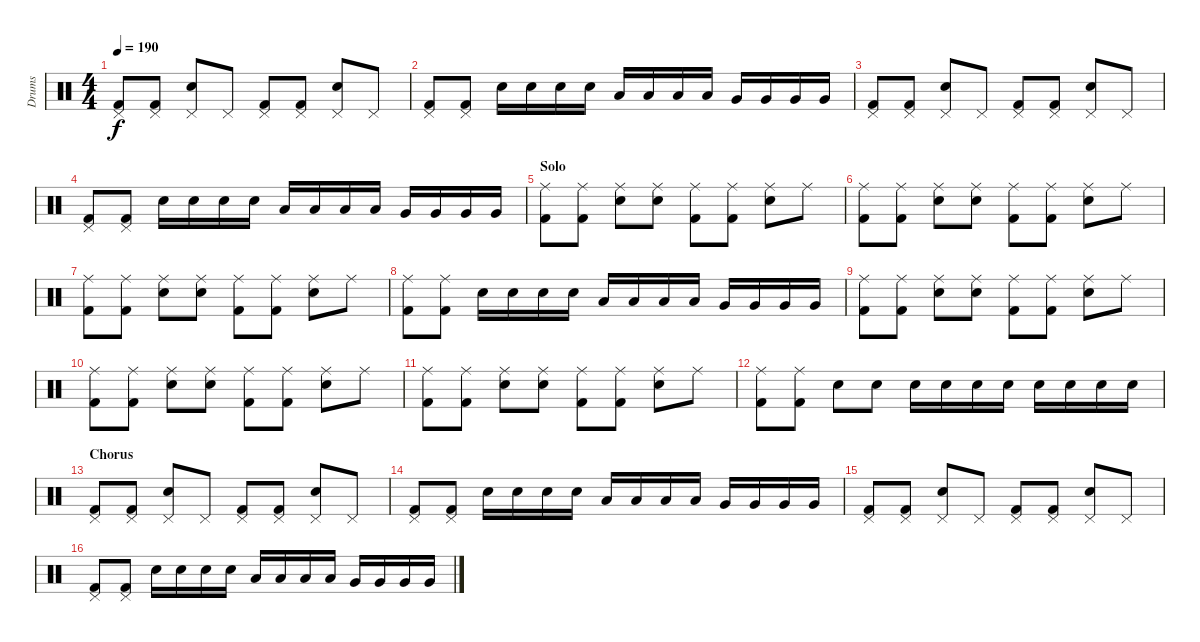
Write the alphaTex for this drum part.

\track ("Drums" "Drums") {instrument percussion}
\staff {score}
\articulation defaults
\ts (4 4)
\tempo 190
\clef neutral
\ks c
("Kick (hit) 2" "Pedal Hi-Hat (hit)").8{dy f} ("Kick (hit) 2" "Pedal Hi-Hat (hit)").8 ("Electric Snare (hit)" "Pedal Hi-Hat (hit)").8 "Pedal Hi-Hat (hit)".8 ("Kick (hit) 2" "Pedal Hi-Hat (hit)").8 ("Kick (hit) 2" "Pedal Hi-Hat (hit)").8 ("Electric Snare (hit)" "Pedal Hi-Hat (hit)").8 "Pedal Hi-Hat (hit)".8 |
("Kick (hit) 2" "Pedal Hi-Hat (hit)").8 ("Kick (hit) 2" "Pedal Hi-Hat (hit)").8 "Electric Snare (hit)".16 "Electric Snare (hit)".16 "Electric Snare (hit)".16 "Electric Snare (hit)".16 "Low Floor Tom (hit)".16 "Low Floor Tom (hit)".16 "Low Floor Tom (hit)".16 "Low Floor Tom (hit)".16 "Very Low Tom (hit)".16 "Very Low Tom (hit)".16 "Very Low Tom (hit)".16 "Very Low Tom (hit)".16 |
("Kick (hit) 2" "Pedal Hi-Hat (hit)").8 ("Kick (hit) 2" "Pedal Hi-Hat (hit)").8 ("Electric Snare (hit)" "Pedal Hi-Hat (hit)").8 "Pedal Hi-Hat (hit)".8 ("Kick (hit) 2" "Pedal Hi-Hat (hit)").8 ("Kick (hit) 2" "Pedal Hi-Hat (hit)").8 ("Electric Snare (hit)" "Pedal Hi-Hat (hit)").8 "Pedal Hi-Hat (hit)".8 |
("Kick (hit) 2" "Pedal Hi-Hat (hit)").8 ("Kick (hit) 2" "Pedal Hi-Hat (hit)").8 "Electric Snare (hit)".16 "Electric Snare (hit)".16 "Electric Snare (hit)".16 "Electric Snare (hit)".16 "Low Floor Tom (hit)".16 "Low Floor Tom (hit)".16 "Low Floor Tom (hit)".16 "Low Floor Tom (hit)".16 "Very Low Tom (hit)".16 "Very Low Tom (hit)".16 "Very Low Tom (hit)".16 "Very Low Tom (hit)".16 |
\section ("" "Solo")
("Kick (hit) 2" "Ride (middle)").8 ("Kick (hit) 2" "Ride (middle)").8 ("Electric Snare (hit)" "Ride (middle)").8 ("Electric Snare (hit)" "Ride (middle)").8 ("Kick (hit) 2" "Ride (middle)").8 ("Kick (hit) 2" "Ride (middle)").8 ("Electric Snare (hit)" "Ride (middle)").8 "Ride (middle)".8 |
("Kick (hit) 2" "Ride (middle)").8 ("Kick (hit) 2" "Ride (middle)").8 ("Electric Snare (hit)" "Ride (middle)").8 ("Electric Snare (hit)" "Ride (middle)").8 ("Kick (hit) 2" "Ride (middle)").8 ("Kick (hit) 2" "Ride (middle)").8 ("Electric Snare (hit)" "Ride (middle)").8 "Ride (middle)".8 |
("Kick (hit) 2" "Ride (middle)").8 ("Kick (hit) 2" "Ride (middle)").8 ("Electric Snare (hit)" "Ride (middle)").8 ("Electric Snare (hit)" "Ride (middle)").8 ("Kick (hit) 2" "Ride (middle)").8 ("Kick (hit) 2" "Ride (middle)").8 ("Electric Snare (hit)" "Ride (middle)").8 "Ride (middle)".8 |
("Kick (hit) 2" "Ride (middle)").8 ("Kick (hit) 2" "Ride (middle)").8 "Electric Snare (hit)".16 "Electric Snare (hit)".16 "Electric Snare (hit)".16 "Electric Snare (hit)".16 "Low Floor Tom (hit)".16 "Low Floor Tom (hit)".16 "Low Floor Tom (hit)".16 "Low Floor Tom (hit)".16 "Very Low Tom (hit)".16 "Very Low Tom (hit)".16 "Very Low Tom (hit)".16 "Very Low Tom (hit)".16 |
("Kick (hit) 2" "Ride (middle)").8 ("Kick (hit) 2" "Ride (middle)").8 ("Electric Snare (hit)" "Ride (middle)").8 ("Electric Snare (hit)" "Ride (middle)").8 ("Kick (hit) 2" "Ride (middle)").8 ("Kick (hit) 2" "Ride (middle)").8 ("Electric Snare (hit)" "Ride (middle)").8 "Ride (middle)".8 |
("Kick (hit) 2" "Ride (middle)").8 ("Kick (hit) 2" "Ride (middle)").8 ("Electric Snare (hit)" "Ride (middle)").8 ("Electric Snare (hit)" "Ride (middle)").8 ("Kick (hit) 2" "Ride (middle)").8 ("Kick (hit) 2" "Ride (middle)").8 ("Electric Snare (hit)" "Ride (middle)").8 "Ride (middle)".8 |
("Kick (hit) 2" "Ride (middle)").8 ("Kick (hit) 2" "Ride (middle)").8 ("Electric Snare (hit)" "Ride (middle)").8 ("Electric Snare (hit)" "Ride (middle)").8 ("Kick (hit) 2" "Ride (middle)").8 ("Kick (hit) 2" "Ride (middle)").8 ("Electric Snare (hit)" "Ride (middle)").8 "Ride (middle)".8 |
("Kick (hit) 2" "Ride (middle)").8 ("Kick (hit) 2" "Ride (middle)").8 "Electric Snare (hit)".8 "Electric Snare (hit)".8 "Electric Snare (hit)".16 "Electric Snare (hit)".16 "Electric Snare (hit)".16 "Electric Snare (hit)".16 "Electric Snare (hit)".16 "Electric Snare (hit)".16 "Electric Snare (hit)".16 "Electric Snare (hit)".16 |
\section ("" "Chorus")
("Kick (hit) 2" "Pedal Hi-Hat (hit)").8 ("Kick (hit) 2" "Pedal Hi-Hat (hit)").8 ("Electric Snare (hit)" "Pedal Hi-Hat (hit)").8 "Pedal Hi-Hat (hit)".8 ("Kick (hit) 2" "Pedal Hi-Hat (hit)").8 ("Kick (hit) 2" "Pedal Hi-Hat (hit)").8 ("Electric Snare (hit)" "Pedal Hi-Hat (hit)").8 "Pedal Hi-Hat (hit)".8 |
("Kick (hit) 2" "Pedal Hi-Hat (hit)").8 ("Kick (hit) 2" "Pedal Hi-Hat (hit)").8 "Electric Snare (hit)".16 "Electric Snare (hit)".16 "Electric Snare (hit)".16 "Electric Snare (hit)".16 "Low Floor Tom (hit)".16 "Low Floor Tom (hit)".16 "Low Floor Tom (hit)".16 "Low Floor Tom (hit)".16 "Very Low Tom (hit)".16 "Very Low Tom (hit)".16 "Very Low Tom (hit)".16 "Very Low Tom (hit)".16 |
("Kick (hit) 2" "Pedal Hi-Hat (hit)").8 ("Kick (hit) 2" "Pedal Hi-Hat (hit)").8 ("Electric Snare (hit)" "Pedal Hi-Hat (hit)").8 "Pedal Hi-Hat (hit)".8 ("Kick (hit) 2" "Pedal Hi-Hat (hit)").8 ("Kick (hit) 2" "Pedal Hi-Hat (hit)").8 ("Electric Snare (hit)" "Pedal Hi-Hat (hit)").8 "Pedal Hi-Hat (hit)".8 |
("Kick (hit) 2" "Pedal Hi-Hat (hit)").8 ("Kick (hit) 2" "Pedal Hi-Hat (hit)").8 "Electric Snare (hit)".16 "Electric Snare (hit)".16 "Electric Snare (hit)".16 "Electric Snare (hit)".16 "Low Floor Tom (hit)".16 "Low Floor Tom (hit)".16 "Low Floor Tom (hit)".16 "Low Floor Tom (hit)".16 "Very Low Tom (hit)".16 "Very Low Tom (hit)".16 "Very Low Tom (hit)".16 "Very Low Tom (hit)".16
